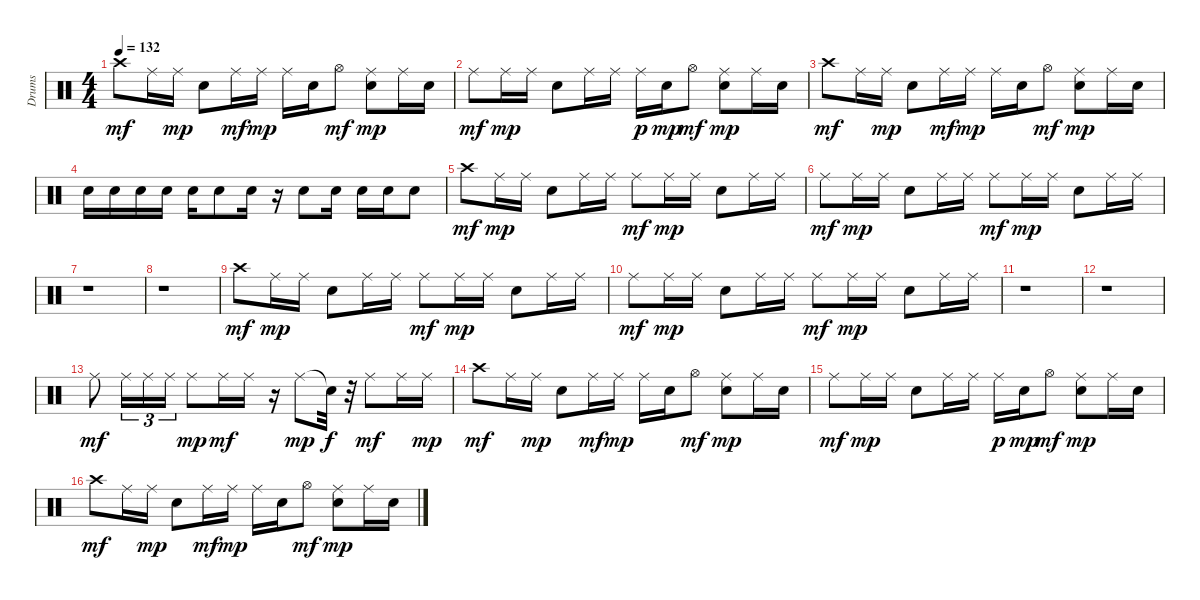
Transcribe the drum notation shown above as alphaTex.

\track ("Drums" "Drums") {instrument percussion}
\staff {score}
\articulation defaults
\ts (4 4)
\tempo 132
\clef neutral
\ks c "Crash high (hit)".8{dy mf} "Ride (middle)".16 "Ride (middle)".16{dy mp} "Electric Snare (hit)".8 "Ride (middle)".16{dy mf} "Ride (middle)".16{dy mp} "Ride (middle)".16 "Electric Snare (hit)".16 "Hi-Hat (open)".8{dy mf}
("Electric Snare (hit)" "Ride (middle)").8{dy mp} "Ride (middle)".16 "Electric Snare (hit)".16 |
"Ride (middle)".8{dy mf} "Ride (middle)".16{dy mp} "Ride (middle)".16 "Electric Snare (hit)".8 "Ride (middle)".16 "Ride (middle)".16 "Ride (middle)".16{dy p} "Electric Snare (hit)".16{dy mp} "Hi-Hat (open)".8{dy mf} ("Electric Snare (hit)" "Ride (middle)").8{dy mp} "Ride (middle)".16 "Electric Snare (hit)".16 |
"Crash high (hit)".8{dy mf} "Ride (middle)".16 "Ride (middle)".16{dy mp} "Electric Snare (hit)".8 "Ride (middle)".16{dy mf} "Ride (middle)".16{dy mp} "Ride (middle)".16 "Electric Snare (hit)".16 "Hi-Hat (open)".8{dy mf} ("Electric Snare (hit)" "Ride (middle)").8{dy mp} "Ride (middle)".16 "Electric Snare (hit)".16 |
"Electric Snare (hit)".16 "Electric Snare (hit)".16 "Electric Snare (hit)".16 "Electric Snare (hit)".16 "Electric Snare (hit)".16 "Electric Snare (hit)".8 "Electric Snare (hit)".16 r.16 "Electric Snare (hit)".8 "Electric Snare (hit)".16 "Electric Snare (hit)".16 "Electric Snare (hit)".16 "Electric Snare (hit)".8 |
"Crash high (hit)".8{dy mf} "Ride (middle)".16{dy mp} "Ride (middle)".16 "Electric Snare (hit)".8 "Ride (middle)".16 "Ride (middle)".16 "Ride (middle)".8{dy mf} "Ride (middle)".16{dy mp} "Ride (middle)".16 "Electric Snare (hit)".8 "Ride (middle)".16 "Ride (middle)".16 |
"Ride (middle)".8{dy mf} "Ride (middle)".16{dy mp} "Ride (middle)".16 "Electric Snare (hit)".8 "Ride (middle)".16 "Ride (middle)".16 "Ride (middle)".8{dy mf} "Ride (middle)".16{dy mp} "Ride (middle)".16 "Electric Snare (hit)".8 "Ride (middle)".16 "Ride (middle)".16 |
r.1 |
r.1 |
"Crash high (hit)".8{dy mf} "Ride (middle)".16{dy mp} "Ride (middle)".16 "Electric Snare (hit)".8 "Ride (middle)".16 "Ride (middle)".16 "Ride (middle)".8{dy mf} "Ride (middle)".16{dy mp} "Ride (middle)".16 "Electric Snare (hit)".8 "Ride (middle)".16 "Ride (middle)".16 |
"Ride (middle)".8{dy mf} "Ride (middle)".16{dy mp} "Ride (middle)".16 "Electric Snare (hit)".8 "Ride (middle)".16 "Ride (middle)".16 "Ride (middle)".8{dy mf} "Ride (middle)".16{dy mp} "Ride (middle)".16 "Electric Snare (hit)".8 "Ride (middle)".16 "Ride (middle)".16 |
r.1 |
r.1 |
"Ride (middle)".8{dy mf} "Ride (middle)".16{tu (3 2)} "Ride (middle)".16{tu (3 2)} "Ride (middle)".16{tu (3 2)} "Ride (middle)".8{dy mp} "Ride (middle)".16{dy mf} "Ride (middle)".16 r.16 "Ride (middle)".8{dy mp} "Snare (hit)"{t}.32{dy f} r.32 "Ride (middle)".8{dy mf} "Ride (middle)".16 "Ride (middle)".16{dy mp} |
"Crash high (hit)".8{dy mf} "Ride (middle)".16 "Ride (middle)".16{dy mp} "Electric Snare (hit)".8 "Ride (middle)".16{dy mf} "Ride (middle)".16{dy mp} "Ride (middle)".16 "Electric Snare (hit)".16 "Hi-Hat (open)".8{dy mf} ("Electric Snare (hit)" "Ride (middle)").8{dy mp} "Ride (middle)".16 "Electric Snare (hit)".16 |
"Ride (middle)".8{dy mf} "Ride (middle)".16{dy mp} "Ride (middle)".16 "Electric Snare (hit)".8 "Ride (middle)".16 "Ride (middle)".16 "Ride (middle)".16{dy p} "Electric Snare (hit)".16{dy mp} "Hi-Hat (open)".8{dy mf} ("Electric Snare (hit)" "Ride (middle)").8{dy mp} "Ride (middle)".16 "Electric Snare (hit)".16 |
"Crash high (hit)".8{dy mf} "Ride (middle)".16 "Ride (middle)".16{dy mp} "Electric Snare (hit)".8 "Ride (middle)".16{dy mf} "Ride (middle)".16{dy mp} "Ride (middle)".16 "Electric Snare (hit)".16 "Hi-Hat (open)".8{dy mf} ("Electric Snare (hit)" "Ride (middle)").8{dy mp} "Ride (middle)".16 "Electric Snare (hit)".16
